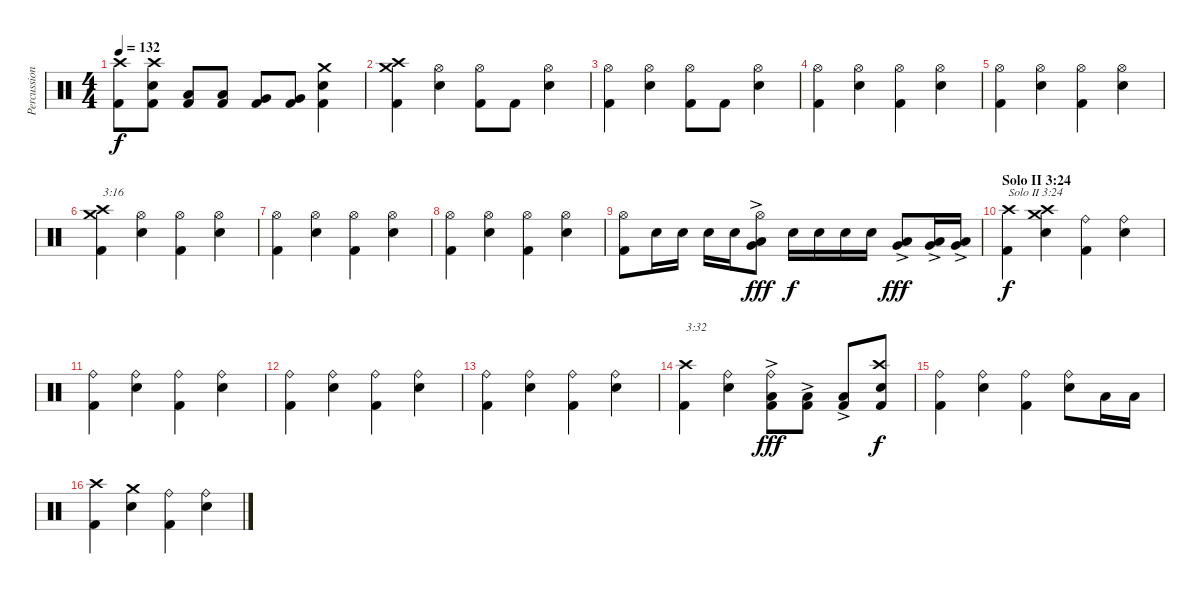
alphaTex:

\track ("Percussion" "Percussion") {instrument percussion}
\staff {score}
\articulation defaults
\ts (4 4)
\tempo 132
\clef neutral
\ks c
("Kick (hit) 2" "Crash high (hit)").8{dy f} ("Kick (hit) 2" "Electric Snare (hit)" "Crash high (hit)").8 ("Kick (hit) 2" "Low Tom (hit)").8 ("Kick (hit) 2" "Low Tom (hit)").8 ("Kick (hit) 2" "Very Low Tom (hit)").8 ("Kick (hit) 2" "Very Low Tom (hit)").8 ("Kick (hit) 2" "Electric Snare (hit)" "Crash medium (hit)").4 |
("Kick (hit) 2" "Crash medium (hit)" "Crash high (hit)").4 ("Electric Snare (hit)" "Hi-Hat (open)").4 ("Kick (hit) 2" "Hi-Hat (open)").8 "Kick (hit) 2".8 ("Electric Snare (hit)" "Hi-Hat (open)").4 |
("Kick (hit) 2" "Hi-Hat (open)").4 ("Electric Snare (hit)" "Hi-Hat (open)").4 ("Kick (hit) 2" "Hi-Hat (open)").8 "Kick (hit) 2".8 ("Electric Snare (hit)" "Hi-Hat (open)").4 |
("Kick (hit) 2" "Hi-Hat (open)").4 ("Electric Snare (hit)" "Hi-Hat (open)").4 ("Kick (hit) 2" "Hi-Hat (open)").4 ("Electric Snare (hit)" "Hi-Hat (open)").4 |
("Kick (hit) 2" "Hi-Hat (open)").4 ("Electric Snare (hit)" "Hi-Hat (open)").4 ("Kick (hit) 2" "Hi-Hat (open)").4 ("Electric Snare (hit)" "Hi-Hat (open)").4 |
("Kick (hit) 2" "Crash high (hit)" "Crash medium (hit)").4{txt "3:16"} ("Electric Snare (hit)" "Hi-Hat (open)").4 ("Kick (hit) 2" "Hi-Hat (open)").4 ("Electric Snare (hit)" "Hi-Hat (open)").4 |
("Kick (hit) 2" "Hi-Hat (open)").4 ("Electric Snare (hit)" "Hi-Hat (open)").4 ("Kick (hit) 2" "Hi-Hat (open)").4 ("Electric Snare (hit)" "Hi-Hat (open)").4 |
("Kick (hit) 2" "Hi-Hat (open)").4 ("Electric Snare (hit)" "Hi-Hat (open)").4 ("Kick (hit) 2" "Hi-Hat (open)").4 ("Electric Snare (hit)" "Hi-Hat (open)").4 |
("Kick (hit) 2" "Hi-Hat (open)").8 "Electric Snare (hit)".16 "Electric Snare (hit)".16 "Electric Snare (hit)".16 "Electric Snare (hit)".16 ("Very Low Tom (hit)"{ac} "Low Tom (hit)"{ac} "Hi-Hat (open)").8{dy fff} "Electric Snare (hit)".16{dy f} "Electric Snare (hit)".16 "Electric Snare (hit)".16 "Electric Snare (hit)".16 ("Very Low Tom (hit)"{ac} "Low Tom (hit)"{ac}).8{dy fff} ("Very Low Tom (hit)"{ac} "Low Tom (hit)"{ac}).16 ("Very Low Tom (hit)"{ac} "Low Tom (hit)"{ac}).16 |
\section ("" "Solo II 3:24")
("Kick (hit) 2" "Crash high (hit)").4{txt "Solo II 3:24" dy f} ("Electric Snare (hit)" "Crash medium (hit)" "Crash high (hit)").4 ("Kick (hit) 2" "Ride (bell)").4 ("Electric Snare (hit)" "Ride (bell)").4 |
("Kick (hit) 2" "Ride (bell)").4 ("Electric Snare (hit)" "Ride (bell)").4 ("Kick (hit) 2" "Ride (bell)").4 ("Electric Snare (hit)" "Ride (bell)").4 |
("Kick (hit) 2" "Ride (bell)").4 ("Electric Snare (hit)" "Ride (bell)").4 ("Kick (hit) 2" "Ride (bell)").4 ("Electric Snare (hit)" "Ride (bell)").4 |
("Kick (hit) 2" "Ride (bell)").4 ("Electric Snare (hit)" "Ride (bell)").4 ("Kick (hit) 2" "Ride (bell)").4 ("Electric Snare (hit)" "Ride (bell)").4 |
("Kick (hit) 2" "Crash high (hit)").4{txt "3:32"} ("Electric Snare (hit)" "Ride (bell)").4 ("Kick (hit) 2" "Low Tom (hit)"{ac} "Ride (bell)").8{dy fff} ("Kick (hit) 2" "Low Tom (hit)"{ac}).8 ("Kick (hit) 2" "Low Tom (hit)"{ac}).8 ("Kick (hit) 2" "Electric Snare (hit)" "Crash high (hit)").8{dy f} |
("Kick (hit) 2" "Ride (bell)").4 ("Electric Snare (hit)" "Ride (bell)").4 ("Kick (hit) 2" "Ride (bell)").4 ("Electric Snare (hit)" "Ride (bell)").8 "Low Tom (hit)".16 "Low Tom (hit)".16 |
("Kick (hit) 2" "Crash high (hit)").4 ("Electric Snare (hit)" "Crash medium (hit)").4 ("Kick (hit) 2" "Ride (bell)").4 ("Electric Snare (hit)" "Ride (bell)").4
